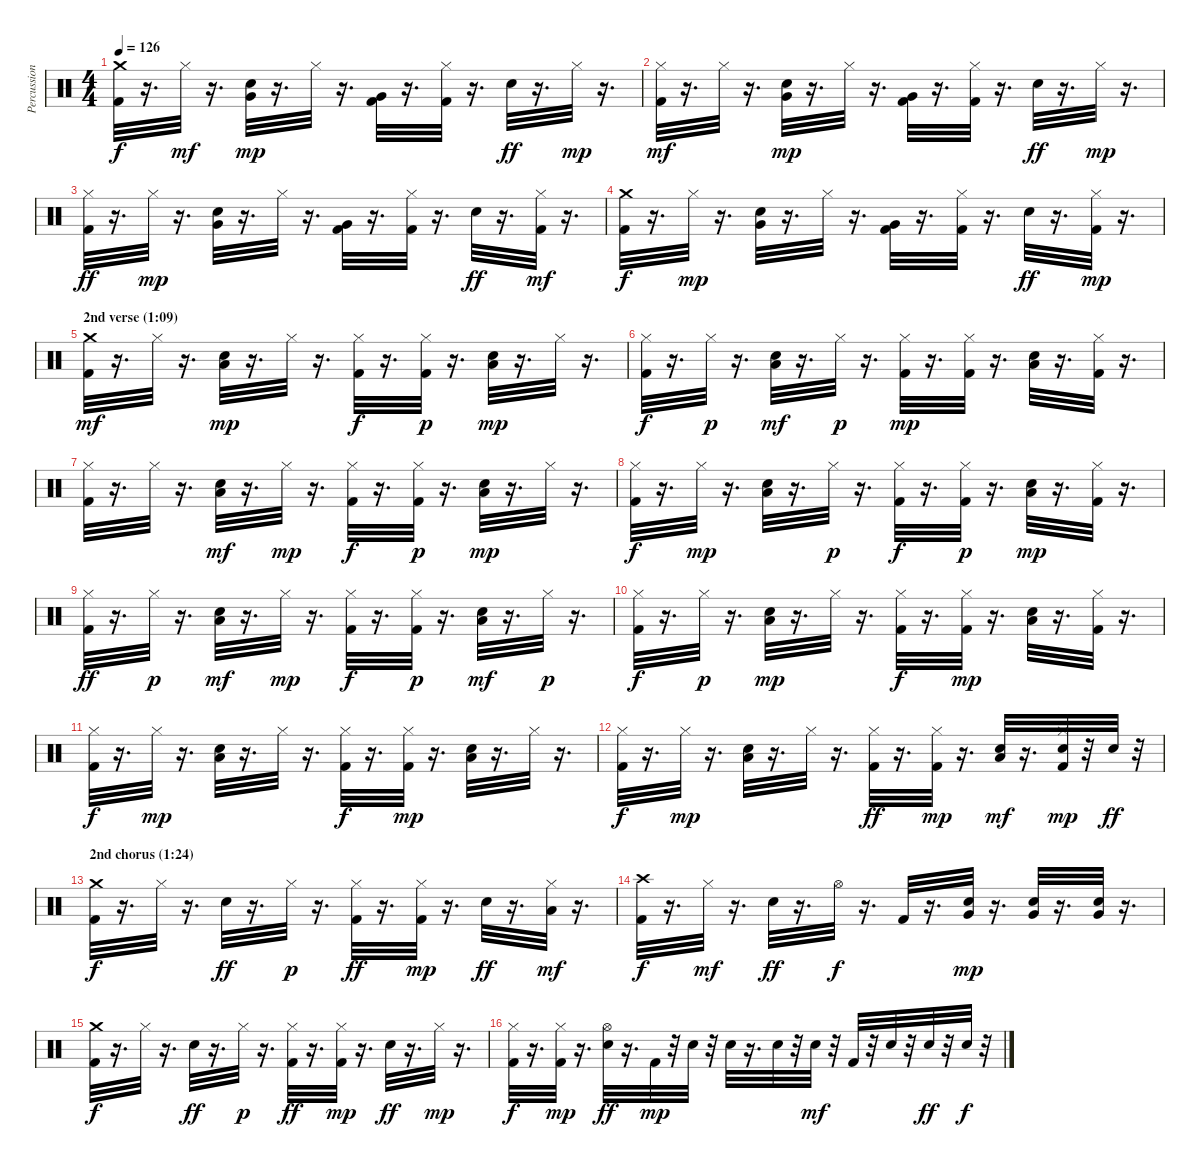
\track ("Percussions" "Percussion") {instrument percussion}
\staff {score}
\articulation defaults
\ts (4 4)
\tempo 126
\clef neutral
\ks c
("Kick (hit) 2" "Crash medium (hit)").32{dy f} r.16{d} "Hi-Hat (closed)".32{dy mf} r.16{d} ("Electric Snare (hit)" "Very Low Tom (hit)").32{dy mp} r.16{d} "Hi-Hat (closed)".32 r.16{d} ("Kick (hit) 2" "Very Low Tom (hit)").32 r.16{d} ("Kick (hit) 2" "Hi-Hat (closed)").32 r.16{d} "Electric Snare (hit)".32{dy ff} r.16{d} "Hi-Hat (closed)".32{dy mp} r.16{d} |
("Kick (hit) 2" "Hi-Hat (closed)").32{dy mf} r.16{d} "Hi-Hat (closed)".32 r.16{d} ("Electric Snare (hit)" "Very Low Tom (hit)").32{dy mp} r.16{d} "Hi-Hat (closed)".32 r.16{d} ("Kick (hit) 2" "Very Low Tom (hit)").32 r.16{d} ("Kick (hit) 2" "Hi-Hat (closed)").32 r.16{d} "Electric Snare (hit)".32{dy ff} r.16{d} "Hi-Hat (closed)".32{dy mp} r.16{d} |
("Kick (hit) 2" "Hi-Hat (closed)").32{dy ff} r.16{d} "Hi-Hat (closed)".32{dy mp} r.16{d} ("Electric Snare (hit)" "Very Low Tom (hit)").32 r.16{d} "Hi-Hat (closed)".32 r.16{d} ("Kick (hit) 2" "Very Low Tom (hit)").32 r.16{d} ("Kick (hit) 2" "Hi-Hat (closed)").32 r.16{d} "Electric Snare (hit)".32{dy ff} r.16{d} ("Kick (hit) 2" "Hi-Hat (closed)").32{dy mf} r.16{d} |
("Kick (hit) 2" "Crash medium (hit)").32{dy f} r.16{d} "Hi-Hat (closed)".32{dy mp} r.16{d} ("Electric Snare (hit)" "Very Low Tom (hit)").32 r.16{d} "Hi-Hat (closed)".32 r.16{d} ("Kick (hit) 2" "Very Low Tom (hit)").32 r.16{d} ("Kick (hit) 2" "Hi-Hat (closed)").32 r.16{d} "Electric Snare (hit)".32{dy ff} r.16{d} ("Kick (hit) 2" "Hi-Hat (closed)").32{dy mp} r.16{d} |
\section ("" "2nd verse (1:09)")
("Kick (hit) 2" "Crash medium (hit)").32{dy mf} r.16{d} "Hi-Hat (closed)".32 r.16{d} ("Electric Snare (hit)" "Low Tom (hit)").32{dy mp} r.16{d} "Hi-Hat (closed)".32 r.16{d} ("Kick (hit) 2" "Hi-Hat (closed)").32{dy f} r.16{d} ("Kick (hit) 2" "Hi-Hat (closed)").32{dy p} r.16{d} ("Electric Snare (hit)" "Low Tom (hit)").32{dy mp} r.16{d} "Hi-Hat (closed)".32 r.16{d} |
("Kick (hit) 2" "Hi-Hat (closed)").32{dy f} r.16{d} "Hi-Hat (closed)".32{dy p} r.16{d} ("Electric Snare (hit)" "Low Tom (hit)").32{dy mf} r.16{d} "Hi-Hat (closed)".32{dy p} r.16{d} ("Kick (hit) 2" "Hi-Hat (closed)").32{dy mp} r.16{d} ("Kick (hit) 2" "Hi-Hat (closed)").32 r.16{d} ("Electric Snare (hit)" "Low Tom (hit)").32 r.16{d} ("Kick (hit) 2" "Hi-Hat (closed)").32 r.16{d} |
("Kick (hit) 2" "Hi-Hat (closed)").32 r.16{d} "Hi-Hat (closed)".32 r.16{d} ("Electric Snare (hit)" "Low Tom (hit)").32{dy mf} r.16{d} "Hi-Hat (closed)".32{dy mp} r.16{d} ("Kick (hit) 2" "Hi-Hat (closed)").32{dy f} r.16{d} ("Kick (hit) 2" "Hi-Hat (closed)").32{dy p} r.16{d} ("Electric Snare (hit)" "Low Tom (hit)").32{dy mp} r.16{d} "Hi-Hat (closed)".32 r.16{d} |
("Kick (hit) 2" "Hi-Hat (closed)").32{dy f} r.16{d} "Hi-Hat (closed)".32{dy mp} r.16{d} ("Electric Snare (hit)" "Low Tom (hit)").32 r.16{d} "Hi-Hat (closed)".32{dy p} r.16{d} ("Kick (hit) 2" "Hi-Hat (closed)").32{dy f} r.16{d} ("Kick (hit) 2" "Hi-Hat (closed)").32{dy p} r.16{d} ("Electric Snare (hit)" "Low Tom (hit)").32{dy mp} r.16{d} ("Kick (hit) 2" "Hi-Hat (closed)").32 r.16{d} |
("Kick (hit) 2" "Hi-Hat (closed)").32{dy ff} r.16{d} "Hi-Hat (closed)".32{dy p} r.16{d} ("Electric Snare (hit)" "Low Tom (hit)").32{dy mf} r.16{d} "Hi-Hat (closed)".32{dy mp} r.16{d} ("Kick (hit) 2" "Hi-Hat (closed)").32{dy f} r.16{d} ("Kick (hit) 2" "Hi-Hat (closed)").32{dy p} r.16{d} ("Electric Snare (hit)" "Low Tom (hit)").32{dy mf} r.16{d} "Hi-Hat (closed)".32{dy p} r.16{d} |
("Kick (hit) 2" "Hi-Hat (closed)").32{dy f} r.16{d} "Hi-Hat (closed)".32{dy p} r.16{d} ("Electric Snare (hit)" "Low Tom (hit)").32{dy mp} r.16{d} "Hi-Hat (closed)".32 r.16{d} ("Kick (hit) 2" "Hi-Hat (closed)").32{dy f} r.16{d} ("Kick (hit) 2" "Hi-Hat (closed)").32{dy mp} r.16{d} ("Electric Snare (hit)" "Low Tom (hit)").32 r.16{d} ("Kick (hit) 2" "Hi-Hat (closed)").32 r.16{d} |
("Kick (hit) 2" "Hi-Hat (closed)").32{dy f} r.16{d} "Hi-Hat (closed)".32{dy mp} r.16{d} ("Electric Snare (hit)" "Low Tom (hit)").32 r.16{d} "Hi-Hat (closed)".32 r.16{d} ("Kick (hit) 2" "Hi-Hat (closed)").32{dy f} r.16{d} ("Kick (hit) 2" "Hi-Hat (closed)").32{dy mp} r.16{d} ("Electric Snare (hit)" "Low Tom (hit)").32 r.16{d} "Hi-Hat (closed)".32 r.16{d} |
("Kick (hit) 2" "Hi-Hat (closed)").32{dy f} r.16{d} "Hi-Hat (closed)".32{dy mp} r.16{d} ("Electric Snare (hit)" "Low Tom (hit)").32 r.16{d} "Hi-Hat (closed)".32 r.16{d} ("Kick (hit) 2" "Hi-Hat (closed)").32{dy ff} r.16{d} ("Kick (hit) 2" "Hi-Hat (closed)").32{dy mp} r.16{d} ("Electric Snare (hit)" "Low Tom (hit)").32{dy mf} r.16{d} ("Kick (hit) 2" "Electric Snare (hit)" "Hi-Hat (closed)").32{dy mp} r.32 "Electric Snare (hit)".32{dy ff} r.32 |
\section ("" "2nd chorus (1:24)")
("Kick (hit) 2" "Crash medium (hit)").32{dy f} r.16{d} "Hi-Hat (closed)".32 r.16{d} "Electric Snare (hit)".32{dy ff} r.16{d} "Hi-Hat (closed)".32{dy p} r.16{d} ("Kick (hit) 2" "Hi-Hat (closed)").32{dy ff} r.16{d} ("Kick (hit) 2" "Hi-Hat (closed)").32{dy mp} r.16{d} "Electric Snare (hit)".32{dy ff} r.16{d} ("Hi-Hat (closed)" "Low Tom (hit)").32{dy mf} r.16{d} |
("Kick (hit) 2" "Crash high (hit)").32{dy f} r.16{d} "Hi-Hat (closed)".32{dy mf} r.16{d} "Electric Snare (hit)".32{dy ff} r.16{d} "Hi-Hat (open)".32{dy f} r.16{d} "Kick (hit) 2".32 r.16{d} ("Electric Snare (hit)" "Very Low Tom (hit)").32{dy mp} r.16{d} ("Electric Snare (hit)" "Very Low Tom (hit)").32 r.16{d} ("Electric Snare (hit)" "Very Low Tom (hit)").32 r.16{d} |
("Kick (hit) 2" "Crash medium (hit)").32{dy f} r.16{d} "Hi-Hat (closed)".32 r.16{d} "Electric Snare (hit)".32{dy ff} r.16{d} "Hi-Hat (closed)".32{dy p} r.16{d} ("Kick (hit) 2" "Hi-Hat (closed)").32{dy ff} r.16{d} ("Kick (hit) 2" "Hi-Hat (closed)").32{dy mp} r.16{d} "Electric Snare (hit)".32{dy ff} r.16{d} "Hi-Hat (closed)".32{dy mp} r.16{d} |
("Kick (hit) 2" "Hi-Hat (closed)").32{dy f} r.16{d} ("Kick (hit) 2" "Hi-Hat (closed)").32{dy mp} r.16{d} ("Electric Snare (hit)" "Hi-Hat (open)").32{dy ff} r.16{d} "Kick (hit) 2".32{dy mp} r.32 "Electric Snare (hit)".32 r.32 "Electric Snare (hit)".32 r.16{d} "Electric Snare (hit)".32 r.32 "Electric Snare (hit)".32{dy mf} r.32 "Kick (hit) 2".32 r.32 "Electric Snare (hit)".32 r.32 "Electric Snare (hit)".32{dy ff} r.32 "Electric Snare (hit)".32{dy f} r.32
